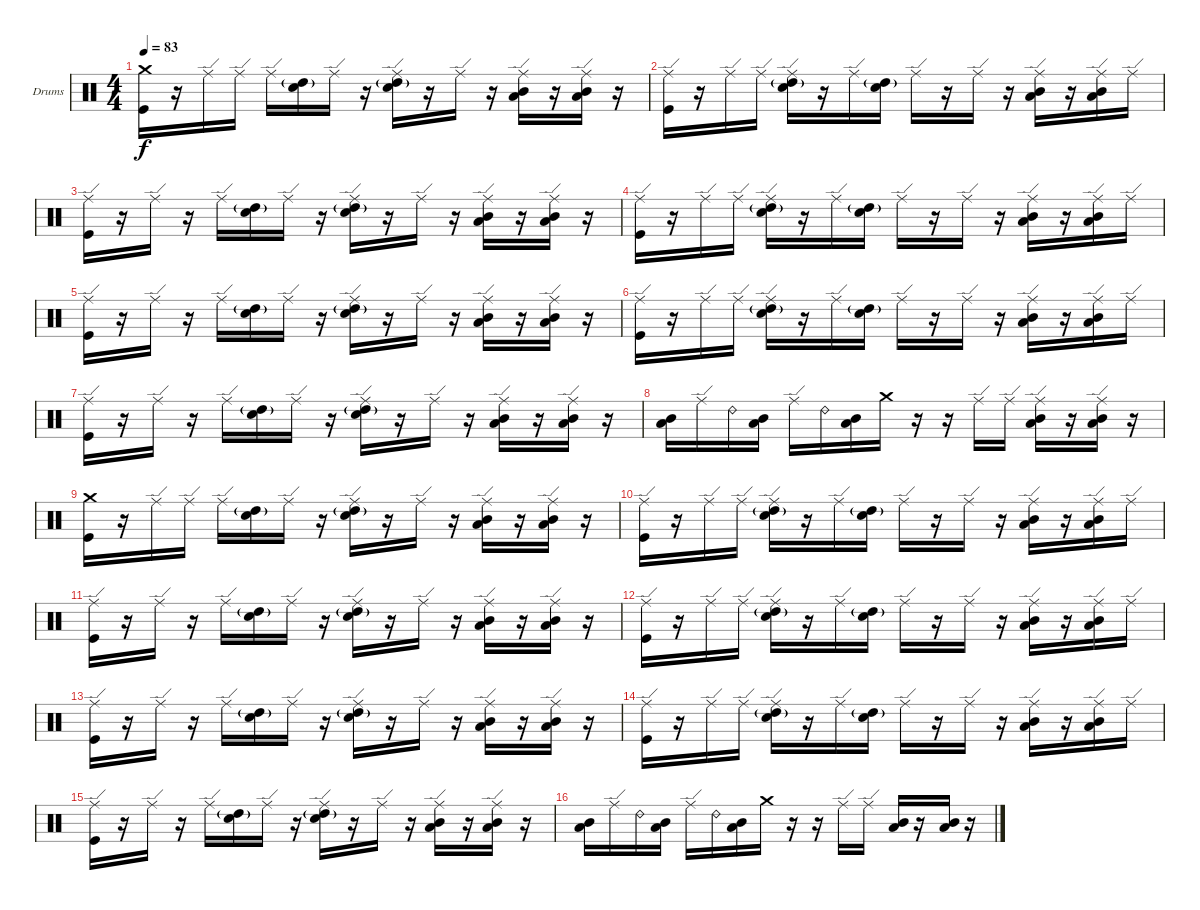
\bracketExtendMode groupsimilarinstruments
\firstSystemTrackNameOrientation horizontal
\otherSystemsTrackNameOrientation horizontal
\track ("Drumkit" "Drums") {instrument percussion}
\staff {score}
\articulation defaults
\ts (4 4)
\tempo 83
\clef neutral
\ks c
("Crash medium (hit)" "Kick (hit)").16{dy f} r.16 "Ride (edge)".16 "Ride (edge)".16 "Ride (edge)".16 ("High Tom (hit)"{g} "Snare (hit) 2").16 "Ride (edge)".16 r.16 ("Ride (edge)" "High Tom (hit)"{g} "Snare (hit) 2").16 r.16 "Ride (edge)".16 r.16 ("Ride (edge)" "Low Tom (hit)" "Mid Tom (hit)").16 r.16 ("Ride (edge)" "Low Tom (hit)" "Mid Tom (hit)").16 r.16 |
("Ride (edge)" "Kick (hit)").16 r.16 "Ride (edge)".16 "Ride (edge)".16 ("Ride (edge)" "High Tom (hit)"{g} "Snare (hit) 2").16 r.16 "Ride (edge)".16 ("High Tom (hit)"{g} "Snare (hit) 2").16 "Ride (edge)".16 r.16 "Ride (edge)".16 r.16 ("Ride (edge)" "Low Tom (hit)" "Mid Tom (hit)").16 r.16 ("Ride (edge)" "Low Tom (hit)" "Mid Tom (hit)").16 "Ride (edge)".16 |
("Ride (edge)" "Kick (hit)").16 r.16 "Ride (edge)".16 r.16 "Ride (edge)".16 ("High Tom (hit)"{g} "Snare (hit) 2").16 "Ride (edge)".16 r.16 ("Ride (edge)" "High Tom (hit)"{g} "Snare (hit) 2").16 r.16 "Ride (edge)".16 r.16 ("Ride (edge)" "Low Tom (hit)" "Mid Tom (hit)").16 r.16 ("Ride (edge)" "Low Tom (hit)" "Mid Tom (hit)").16 r.16 |
("Ride (edge)" "Kick (hit)").16 r.16 "Ride (edge)".16 "Ride (edge)".16 ("Ride (edge)" "High Tom (hit)"{g} "Snare (hit) 2").16 r.16 "Ride (edge)".16 ("High Tom (hit)"{g} "Snare (hit) 2").16 "Ride (edge)".16 r.16 "Ride (edge)".16 r.16 ("Ride (edge)" "Low Tom (hit)" "Mid Tom (hit)").16 r.16 ("Ride (edge)" "Low Tom (hit)" "Mid Tom (hit)").16 "Ride (edge)".16 |
("Ride (edge)" "Kick (hit)").16 r.16 "Ride (edge)".16 r.16 "Ride (edge)".16 ("High Tom (hit)"{g} "Snare (hit) 2").16 "Ride (edge)".16 r.16 ("Ride (edge)" "High Tom (hit)"{g} "Snare (hit) 2").16 r.16 "Ride (edge)".16 r.16 ("Ride (edge)" "Low Tom (hit)" "Mid Tom (hit)").16 r.16 ("Ride (edge)" "Low Tom (hit)" "Mid Tom (hit)").16 r.16 |
("Ride (edge)" "Kick (hit)").16 r.16 "Ride (edge)".16 "Ride (edge)".16 ("Ride (edge)" "High Tom (hit)"{g} "Snare (hit) 2").16 r.16 "Ride (edge)".16 ("High Tom (hit)"{g} "Snare (hit) 2").16 "Ride (edge)".16 r.16 "Ride (edge)".16 r.16 ("Ride (edge)" "Low Tom (hit)" "Mid Tom (hit)").16 r.16 ("Ride (edge)" "Low Tom (hit)" "Mid Tom (hit)").16 "Ride (edge)".16 |
("Ride (edge)" "Kick (hit)").16 r.16 "Ride (edge)".16 r.16 "Ride (edge)".16 ("High Tom (hit)"{g} "Snare (hit) 2").16 "Ride (edge)".16 r.16 ("Ride (edge)" "High Tom (hit)"{g} "Snare (hit) 2").16 r.16 "Ride (edge)".16 r.16 ("Ride (edge)" "Low Tom (hit)" "Mid Tom (hit)").16 r.16 ("Ride (edge)" "Low Tom (hit)" "Mid Tom (hit)").16 r.16 |
("Low Tom (hit)" "Mid Tom (hit)").16 "Ride (edge)".16 "Ride (bell) 2".16 ("Low Tom (hit)" "Mid Tom (hit)").16 "Ride (edge)".16 "Ride (bell) 2".16 ("Low Tom (hit)" "Mid Tom (hit)").16 "Crash medium (hit)".16 r.16 r.16 "Ride (edge)".16 "Ride (edge)".16 ("Ride (edge)" "Low Tom (hit)" "Mid Tom (hit)").16 r.16 ("Ride (edge)" "Low Tom (hit)" "Mid Tom (hit)").16 r.16 |
("Crash medium (hit)" "Kick (hit)").16 r.16 "Ride (edge)".16 "Ride (edge)".16 "Ride (edge)".16 ("High Tom (hit)"{g} "Snare (hit) 2").16 "Ride (edge)".16 r.16 ("Ride (edge)" "High Tom (hit)"{g} "Snare (hit) 2").16 r.16 "Ride (edge)".16 r.16 ("Ride (edge)" "Low Tom (hit)" "Mid Tom (hit)").16 r.16 ("Ride (edge)" "Low Tom (hit)" "Mid Tom (hit)").16 r.16 |
("Ride (edge)" "Kick (hit)").16 r.16 "Ride (edge)".16 "Ride (edge)".16 ("Ride (edge)" "High Tom (hit)"{g} "Snare (hit) 2").16 r.16 "Ride (edge)".16 ("High Tom (hit)"{g} "Snare (hit) 2").16 "Ride (edge)".16 r.16 "Ride (edge)".16 r.16 ("Ride (edge)" "Low Tom (hit)" "Mid Tom (hit)").16 r.16 ("Ride (edge)" "Low Tom (hit)" "Mid Tom (hit)").16 "Ride (edge)".16 |
("Ride (edge)" "Kick (hit)").16 r.16 "Ride (edge)".16 r.16 "Ride (edge)".16 ("High Tom (hit)"{g} "Snare (hit) 2").16 "Ride (edge)".16 r.16 ("Ride (edge)" "High Tom (hit)"{g} "Snare (hit) 2").16 r.16 "Ride (edge)".16 r.16 ("Ride (edge)" "Low Tom (hit)" "Mid Tom (hit)").16 r.16 ("Ride (edge)" "Low Tom (hit)" "Mid Tom (hit)").16 r.16 |
("Ride (edge)" "Kick (hit)").16 r.16 "Ride (edge)".16 "Ride (edge)".16 ("Ride (edge)" "High Tom (hit)"{g} "Snare (hit) 2").16 r.16 "Ride (edge)".16 ("High Tom (hit)"{g} "Snare (hit) 2").16 "Ride (edge)".16 r.16 "Ride (edge)".16 r.16 ("Ride (edge)" "Low Tom (hit)" "Mid Tom (hit)").16 r.16 ("Ride (edge)" "Low Tom (hit)" "Mid Tom (hit)").16 "Ride (edge)".16 |
("Ride (edge)" "Kick (hit)").16 r.16 "Ride (edge)".16 r.16 "Ride (edge)".16 ("High Tom (hit)"{g} "Snare (hit) 2").16 "Ride (edge)".16 r.16 ("Ride (edge)" "High Tom (hit)"{g} "Snare (hit) 2").16 r.16 "Ride (edge)".16 r.16 ("Ride (edge)" "Low Tom (hit)" "Mid Tom (hit)").16 r.16 ("Ride (edge)" "Low Tom (hit)" "Mid Tom (hit)").16 r.16 |
("Ride (edge)" "Kick (hit)").16 r.16 "Ride (edge)".16 "Ride (edge)".16 ("Ride (edge)" "High Tom (hit)"{g} "Snare (hit) 2").16 r.16 "Ride (edge)".16 ("High Tom (hit)"{g} "Snare (hit) 2").16 "Ride (edge)".16 r.16 "Ride (edge)".16 r.16 ("Ride (edge)" "Low Tom (hit)" "Mid Tom (hit)").16 r.16 ("Ride (edge)" "Low Tom (hit)" "Mid Tom (hit)").16 "Ride (edge)".16 |
("Ride (edge)" "Kick (hit)").16 r.16 "Ride (edge)".16 r.16 "Ride (edge)".16 ("High Tom (hit)"{g} "Snare (hit) 2").16 "Ride (edge)".16 r.16 ("Ride (edge)" "High Tom (hit)"{g} "Snare (hit) 2").16 r.16 "Ride (edge)".16 r.16 ("Ride (edge)" "Low Tom (hit)" "Mid Tom (hit)").16 r.16 ("Ride (edge)" "Low Tom (hit)" "Mid Tom (hit)").16 r.16 |
("Low Tom (hit)" "Mid Tom (hit)").16 "Ride (edge)".16 "Ride (bell) 2".16 ("Low Tom (hit)" "Mid Tom (hit)").16 "Ride (edge)".16 "Ride (bell) 2".16 ("Low Tom (hit)" "Mid Tom (hit)").16 "Crash medium (hit)".16 r.16 r.16 "Ride (edge)".16 "Ride (edge)".16 ("Low Tom (hit)" "Mid Tom (hit)").16 r.16 ("Low Tom (hit)" "Mid Tom (hit)").16 r.16
